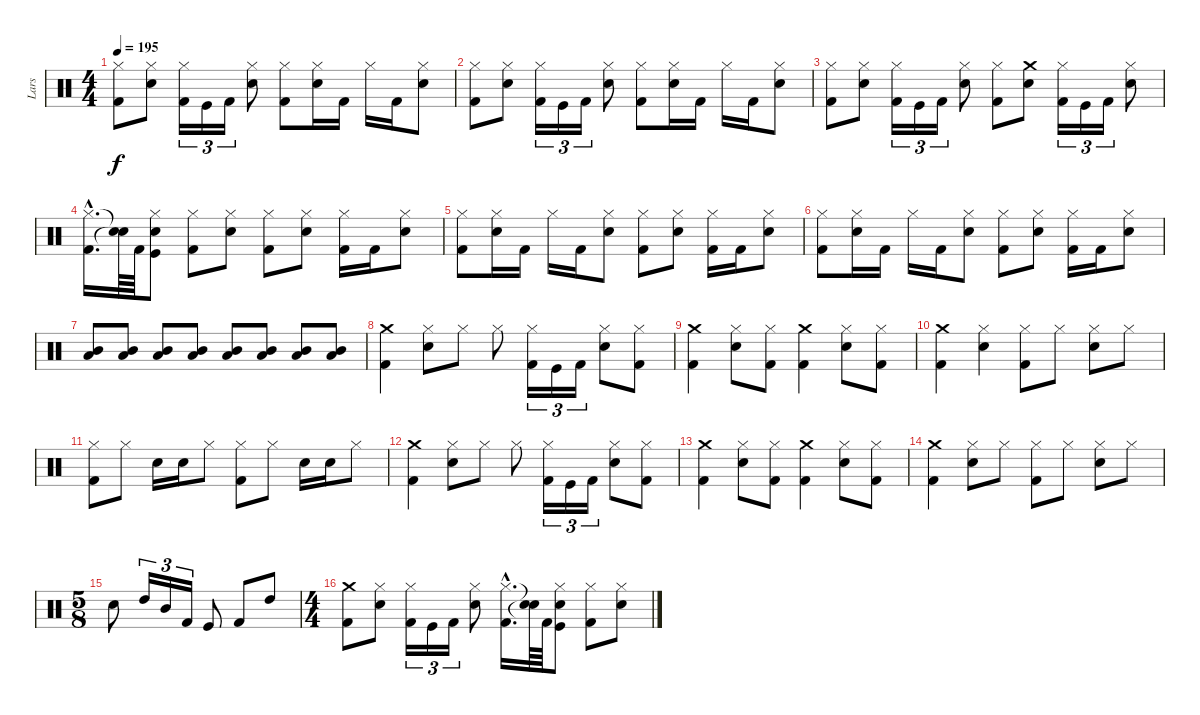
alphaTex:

\track ("Lars" "Lars") {instrument percussion}
\staff {score}
\articulation defaults
\ts (4 4)
\tempo 195
\clef neutral
\ks c
("Kick (hit) 2" "Hi-Hat (closed)").8{dy f} ("Snare (hit) 2" "Hi-Hat (closed)").8 ("Kick (hit) 2" "Hi-Hat (closed)").16{tu (3 2)} "Kick (hit)".16{tu (3 2)} "Kick (hit) 2".16{tu (3 2)} ("Snare (hit) 2" "Hi-Hat (closed)").8 ("Kick (hit) 2" "Hi-Hat (closed)").8 ("Snare (hit) 2" "Hi-Hat (closed)").16 "Kick (hit) 2".16 "Hi-Hat (closed)".16 "Kick (hit) 2".16 ("Snare (hit) 2" "Hi-Hat (closed)").8 |
("Kick (hit) 2" "Hi-Hat (closed)").8 ("Snare (hit) 2" "Hi-Hat (closed)").8 ("Kick (hit) 2" "Hi-Hat (closed)").16{tu (3 2)} "Kick (hit)".16{tu (3 2)} "Kick (hit) 2".16{tu (3 2)} ("Snare (hit) 2" "Hi-Hat (closed)").8 ("Kick (hit) 2" "Hi-Hat (closed)").8 ("Snare (hit) 2" "Hi-Hat (closed)").16 "Kick (hit) 2".16 "Hi-Hat (closed)".16 "Kick (hit) 2".16 ("Snare (hit) 2" "Hi-Hat (closed)").8 |
("Kick (hit) 2" "Hi-Hat (closed)").8 ("Snare (hit) 2" "Hi-Hat (closed)").8 ("Kick (hit) 2" "Hi-Hat (closed)").16{tu (3 2)} "Kick (hit)".16{tu (3 2)} "Kick (hit) 2".16{tu (3 2)} ("Snare (hit) 2" "Hi-Hat (closed)").8 ("Kick (hit) 2" "Hi-Hat (closed)").8 ("Crash medium (hit)" "Snare (hit) 2").8 ("Kick (hit) 2" "Hi-Hat (closed)").16{tu (3 2)} "Kick (hit)".16{tu (3 2)} "Kick (hit) 2".16{tu (3 2)} ("Snare (hit) 2" "Hi-Hat (closed)").8 |
("Kick (hit) 2"{hac} "Hi-Hat (closed)"{hac}).16{d} ("Snare (hit)"{t} "Snare (hit)"{t}).64 "Kick (hit) 2".64 ("Kick (hit)" "Snare (hit) 2" "Hi-Hat (closed)").8 ("Kick (hit) 2" "Hi-Hat (closed)").8 ("Snare (hit) 2" "Hi-Hat (closed)").8 ("Kick (hit) 2" "Hi-Hat (closed)").8 ("Snare (hit) 2" "Hi-Hat (closed)").8 ("Kick (hit) 2" "Hi-Hat (closed)").16 "Kick (hit) 2".16 ("Snare (hit) 2" "Hi-Hat (closed)").8 |
("Hi-Hat (closed)" "Kick (hit) 2").8 ("Snare (hit) 2" "Hi-Hat (closed)").16 "Kick (hit) 2".16 "Hi-Hat (closed)".16 "Kick (hit) 2".16 ("Snare (hit) 2" "Hi-Hat (closed)").8 ("Hi-Hat (closed)" "Kick (hit) 2").8 ("Snare (hit) 2" "Hi-Hat (closed)").8 ("Hi-Hat (closed)" "Kick (hit) 2").16 "Kick (hit) 2".16 ("Snare (hit) 2" "Hi-Hat (closed)").8 |
("Hi-Hat (closed)" "Kick (hit) 2").8 ("Snare (hit) 2" "Hi-Hat (closed)").16 "Kick (hit) 2".16 "Hi-Hat (closed)".16 "Kick (hit) 2".16 ("Snare (hit) 2" "Hi-Hat (closed)").8 ("Hi-Hat (closed)" "Kick (hit) 2").8 ("Snare (hit) 2" "Hi-Hat (closed)").8 ("Hi-Hat (closed)" "Kick (hit) 2").16 "Kick (hit) 2".16 ("Snare (hit) 2" "Hi-Hat (closed)").8 |
("Mid Tom (hit)" "Low Tom (hit)").8 ("Mid Tom (hit)" "Low Tom (hit)").8 ("Mid Tom (hit)" "Low Tom (hit)").8 ("Mid Tom (hit)" "Low Tom (hit)").8 ("Mid Tom (hit)" "Low Tom (hit)").8 ("Mid Tom (hit)" "Low Tom (hit)").8 ("Mid Tom (hit)" "Low Tom (hit)").8 ("Mid Tom (hit)" "Low Tom (hit)").8 |
("Kick (hit) 2" "Crash medium (hit)").4 ("Snare (hit) 2" "Hi-Hat (closed)").8 "Hi-Hat (closed)".8 "Hi-Hat (closed)".8 ("Kick (hit) 2" "Hi-Hat (closed)").16{tu (3 2)} "Kick (hit)".16{tu (3 2)} "Kick (hit) 2".16{tu (3 2)} ("Snare (hit) 2" "Hi-Hat (closed)").8 ("Kick (hit) 2" "Hi-Hat (closed)").8 |
("Kick (hit) 2" "Crash medium (hit)").4 ("Hi-Hat (closed)" "Snare (hit) 2").8 ("Kick (hit) 2" "Hi-Hat (closed)").8 ("Crash medium (hit)" "Kick (hit) 2").4 ("Hi-Hat (closed)" "Snare (hit) 2").8 ("Kick (hit) 2" "Hi-Hat (closed)").8 |
("Kick (hit) 2" "Crash medium (hit)").4 ("Hi-Hat (closed)" "Snare (hit) 2").4 ("Hi-Hat (closed)" "Kick (hit) 2").8 "Hi-Hat (closed)".8 ("Snare (hit) 2" "Hi-Hat (closed)").8 "Hi-Hat (closed)".8 |
("Kick (hit) 2" "Hi-Hat (closed)").8 "Hi-Hat (closed)".8 "Snare (hit) 2".16 "Snare (hit) 2".16 "Hi-Hat (closed)".8 ("Kick (hit) 2" "Hi-Hat (closed)").8 "Hi-Hat (closed)".8 "Snare (hit) 2".16 "Snare (hit) 2".16 "Hi-Hat (closed)".8 |
("Kick (hit) 2" "Crash medium (hit)").4 ("Snare (hit) 2" "Hi-Hat (closed)").8 "Hi-Hat (closed)".8 "Hi-Hat (closed)".8 ("Kick (hit) 2" "Hi-Hat (closed)").16{tu (3 2)} "Kick (hit)".16{tu (3 2)} "Kick (hit) 2".16{tu (3 2)} ("Snare (hit) 2" "Hi-Hat (closed)").8 ("Kick (hit) 2" "Hi-Hat (closed)").8 |
("Kick (hit) 2" "Crash medium (hit)").4 ("Hi-Hat (closed)" "Snare (hit) 2").8 ("Kick (hit) 2" "Hi-Hat (closed)").8 ("Crash medium (hit)" "Kick (hit) 2").4 ("Hi-Hat (closed)" "Snare (hit) 2").8 ("Kick (hit) 2" "Hi-Hat (closed)").8 |
("Kick (hit) 2" "Crash medium (hit)").4 ("Hi-Hat (closed)" "Snare (hit) 2").8 "Hi-Hat (closed)".8 ("Hi-Hat (closed)" "Kick (hit) 2").8 "Hi-Hat (closed)".8 ("Snare (hit) 2" "Hi-Hat (closed)").8 "Hi-Hat (closed)".8 |
\ts (5 8)
"Snare (hit) 2".8 "High Tom (hit)".16{tu (3 2)} "Mid Tom (hit)".16{tu (3 2)} "Kick (hit) 2".16{tu (3 2)} "Kick (hit)".8 "Kick (hit) 2".8 "High Tom (hit)".8 |
\ts (4 4)
("Crash medium (hit)" "Kick (hit) 2").8 ("Snare (hit) 2" "Hi-Hat (closed)").8 ("Kick (hit) 2" "Hi-Hat (closed)").16{tu (3 2)} "Kick (hit)".16{tu (3 2)} "Kick (hit) 2".16{tu (3 2)} ("Snare (hit) 2" "Hi-Hat (closed)").8 ("Kick (hit) 2"{hac} "Hi-Hat (closed)"{hac}).16{d} ("Snare (hit)"{t} "Snare (hit)"{t}).64 "Kick (hit) 2".64 ("Kick (hit)" "Snare (hit) 2" "Hi-Hat (closed)").8 ("Kick (hit) 2" "Hi-Hat (closed)").8 ("Snare (hit) 2" "Hi-Hat (closed)").8
